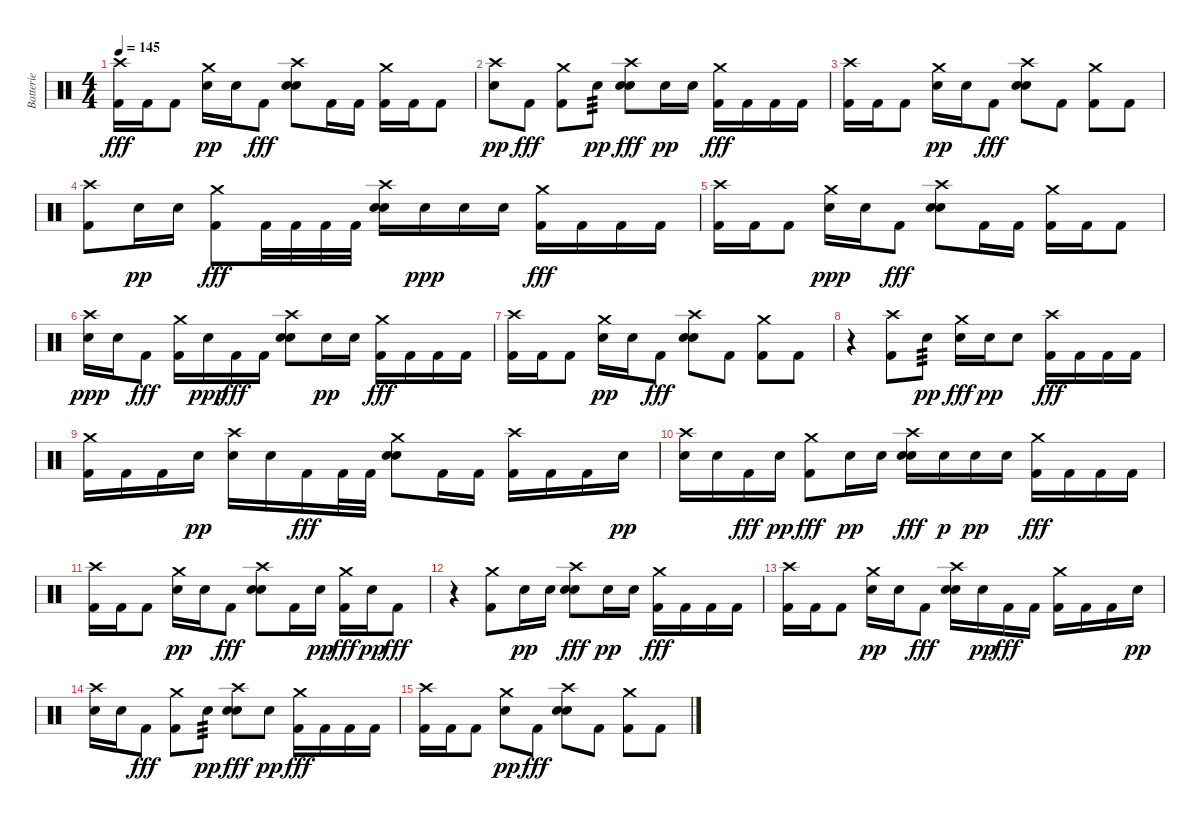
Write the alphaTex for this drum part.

\track ("Batterie" "Batterie") {instrument percussion}
\staff {score}
\articulation defaults
\ts (4 4)
\tempo 145
\clef neutral
\ks c
("Crash high (hit)" "Kick (hit) 2").16{dy fff} "Kick (hit) 2".16 "Kick (hit) 2".8 ("Crash medium (hit)" "Electric Snare (hit)").16{dy pp} "Electric Snare (hit)".16 "Kick (hit) 2".8{dy fff} ("Crash high (hit)" "Electric Snare (hit)" "Electric Snare (hit)").8 "Kick (hit) 2".16 "Kick (hit) 2".16 ("Crash medium (hit)" "Kick (hit) 2").16 "Kick (hit) 2".16 "Kick (hit) 2".8 |
("Crash high (hit)" "Electric Snare (hit)").8{dy pp} "Kick (hit) 2".8{dy fff} ("Crash medium (hit)" "Kick (hit) 2").8 "Electric Snare (hit)".8{tp 3 dy pp} ("Crash high (hit)" "Electric Snare (hit)" "Electric Snare (hit)").8{dy fff} "Electric Snare (hit)".16{dy pp} "Electric Snare (hit)".16 ("Crash medium (hit)" "Kick (hit) 2").16{dy fff} "Kick (hit) 2".16 "Kick (hit) 2".16 "Kick (hit) 2".16 |
("Crash high (hit)" "Kick (hit) 2").16 "Kick (hit) 2".16 "Kick (hit) 2".8 ("Crash medium (hit)" "Electric Snare (hit)").16{dy pp} "Electric Snare (hit)".16 "Kick (hit) 2".8{dy fff} ("Crash high (hit)" "Electric Snare (hit)" "Electric Snare (hit)").8 "Kick (hit) 2".8 ("Crash medium (hit)" "Kick (hit) 2").8 "Kick (hit) 2".8 |
("Crash high (hit)" "Kick (hit) 2").8 "Electric Snare (hit)".16{dy pp} "Electric Snare (hit)".16 ("Crash medium (hit)" "Kick (hit) 2").8{dy fff} "Kick (hit) 2".32 "Kick (hit) 2".32 "Kick (hit) 2".32 "Kick (hit) 2".32 ("Crash high (hit)" "Electric Snare (hit)" "Electric Snare (hit)").16 "Electric Snare (hit)".16{dy ppp} "Electric Snare (hit)".16 "Electric Snare (hit)".16 ("Crash medium (hit)" "Kick (hit) 2").16{dy fff} "Kick (hit) 2".16 "Kick (hit) 2".16 "Kick (hit) 2".16 |
("Crash high (hit)" "Kick (hit) 2").16 "Kick (hit) 2".16 "Kick (hit) 2".8 ("Crash medium (hit)" "Electric Snare (hit)").16{dy ppp} "Electric Snare (hit)".16 "Kick (hit) 2".8{dy fff} ("Crash high (hit)" "Electric Snare (hit)" "Electric Snare (hit)").8 "Kick (hit) 2".16 "Kick (hit) 2".16 ("Crash medium (hit)" "Kick (hit) 2").16 "Kick (hit) 2".16 "Kick (hit) 2".8 |
("Crash high (hit)" "Electric Snare (hit)").16{dy ppp} "Electric Snare (hit)".16 "Kick (hit) 2".8{dy fff} ("Crash medium (hit)" "Kick (hit) 2").16 "Electric Snare (hit)".16{dy ppp} "Kick (hit) 2".16{dy fff} "Kick (hit) 2".16 ("Crash high (hit)" "Electric Snare (hit)" "Electric Snare (hit)").8 "Electric Snare (hit)".16{dy pp} "Electric Snare (hit)".16 ("Crash medium (hit)" "Kick (hit) 2").16{dy fff} "Kick (hit) 2".16 "Kick (hit) 2".16 "Kick (hit) 2".16 |
("Crash high (hit)" "Kick (hit) 2").16 "Kick (hit) 2".16 "Kick (hit) 2".8 ("Crash medium (hit)" "Electric Snare (hit)").16{dy pp} "Electric Snare (hit)".16 "Kick (hit) 2".8{dy fff} ("Crash high (hit)" "Electric Snare (hit)" "Electric Snare (hit)").8 "Kick (hit) 2".8 ("Crash medium (hit)" "Kick (hit) 2").8 "Kick (hit) 2".8 |
r.4 ("Crash high (hit)" "Kick (hit) 2").8 "Electric Snare (hit)".8{tp 3 dy pp} ("Crash medium (hit)" "Electric Snare (hit)").16{dy fff} "Electric Snare (hit)".16{dy pp} "Electric Snare (hit)".8 ("Crash high (hit)" "Kick (hit) 2").16{dy fff} "Kick (hit) 2".16 "Kick (hit) 2".16 "Kick (hit) 2".16 |
("Crash medium (hit)" "Kick (hit) 2").16 "Kick (hit) 2".16 "Kick (hit) 2".16 "Electric Snare (hit)".16{dy pp} ("Crash high (hit)" "Electric Snare (hit)").16 "Electric Snare (hit)".16 "Kick (hit) 2".16{dy fff} "Kick (hit) 2".32 "Kick (hit) 2".32 ("Crash medium (hit)" "Electric Snare (hit)" "Electric Snare (hit)").8 "Kick (hit) 2".16 "Kick (hit) 2".16 ("Crash high (hit)" "Kick (hit) 2").16 "Kick (hit) 2".16 "Kick (hit) 2".16 "Electric Snare (hit)".16{dy pp} |
("Crash high (hit)" "Electric Snare (hit)").16 "Electric Snare (hit)".16 "Kick (hit) 2".16{dy fff} "Electric Snare (hit)".16{dy pp} ("Crash medium (hit)" "Kick (hit) 2").8{dy fff} "Electric Snare (hit)".16{dy pp} "Electric Snare (hit)".16 ("Crash high (hit)" "Electric Snare (hit)" "Electric Snare (hit)").16{dy fff} "Electric Snare (hit)".16{dy p} "Electric Snare (hit)".16{dy pp} "Electric Snare (hit)".16 ("Crash medium (hit)" "Kick (hit) 2").16{dy fff} "Kick (hit) 2".16 "Kick (hit) 2".16 "Kick (hit) 2".16 |
("Crash high (hit)" "Kick (hit) 2").16 "Kick (hit) 2".16 "Kick (hit) 2".8 ("Crash medium (hit)" "Electric Snare (hit)").16{dy pp} "Electric Snare (hit)".16 "Kick (hit) 2".8{dy fff} ("Crash high (hit)" "Electric Snare (hit)" "Electric Snare (hit)").8 "Kick (hit) 2".16 "Electric Snare (hit)".16{dy pp} ("Crash medium (hit)" "Kick (hit) 2").16{dy fff} "Electric Snare (hit)".16{dy pp} "Kick (hit) 2".8{dy fff} |
r.4 ("Crash medium (hit)" "Kick (hit) 2").8 "Electric Snare (hit)".16{dy pp} "Electric Snare (hit)".16 ("Crash high (hit)" "Electric Snare (hit)" "Electric Snare (hit)").8{dy fff} "Electric Snare (hit)".16{dy pp} "Electric Snare (hit)".16 ("Crash medium (hit)" "Kick (hit) 2").16{dy fff} "Kick (hit) 2".16 "Kick (hit) 2".16 "Kick (hit) 2".16 |
("Crash high (hit)" "Kick (hit) 2").16 "Kick (hit) 2".16 "Kick (hit) 2".8 ("Crash medium (hit)" "Electric Snare (hit)").16{dy pp} "Electric Snare (hit)".16 "Kick (hit) 2".8{dy fff} ("Crash high (hit)" "Electric Snare (hit)" "Electric Snare (hit)").16 "Electric Snare (hit)".16{dy pp} "Kick (hit) 2".16{dy fff} "Kick (hit) 2".16 ("Crash medium (hit)" "Kick (hit) 2").16 "Kick (hit) 2".16 "Kick (hit) 2".16 "Electric Snare (hit)".16{dy pp} |
("Crash high (hit)" "Electric Snare (hit)").16 "Electric Snare (hit)".16 "Kick (hit) 2".8{dy fff} ("Crash medium (hit)" "Kick (hit) 2").8 "Electric Snare (hit)".8{tp 3 dy pp} ("Crash high (hit)" "Electric Snare (hit)" "Electric Snare (hit)").8{dy fff} "Electric Snare (hit)".8{dy pp} ("Crash medium (hit)" "Kick (hit) 2").16{dy fff} "Kick (hit) 2".16 "Kick (hit) 2".16 "Kick (hit) 2".16 |
("Crash high (hit)" "Kick (hit) 2").16 "Kick (hit) 2".16 "Kick (hit) 2".8 ("Crash medium (hit)" "Electric Snare (hit)").8{dy pp} "Kick (hit) 2".8{dy fff} ("Crash high (hit)" "Electric Snare (hit)" "Electric Snare (hit)").8 "Kick (hit) 2".8 ("Crash medium (hit)" "Kick (hit) 2").8 "Kick (hit) 2".8
